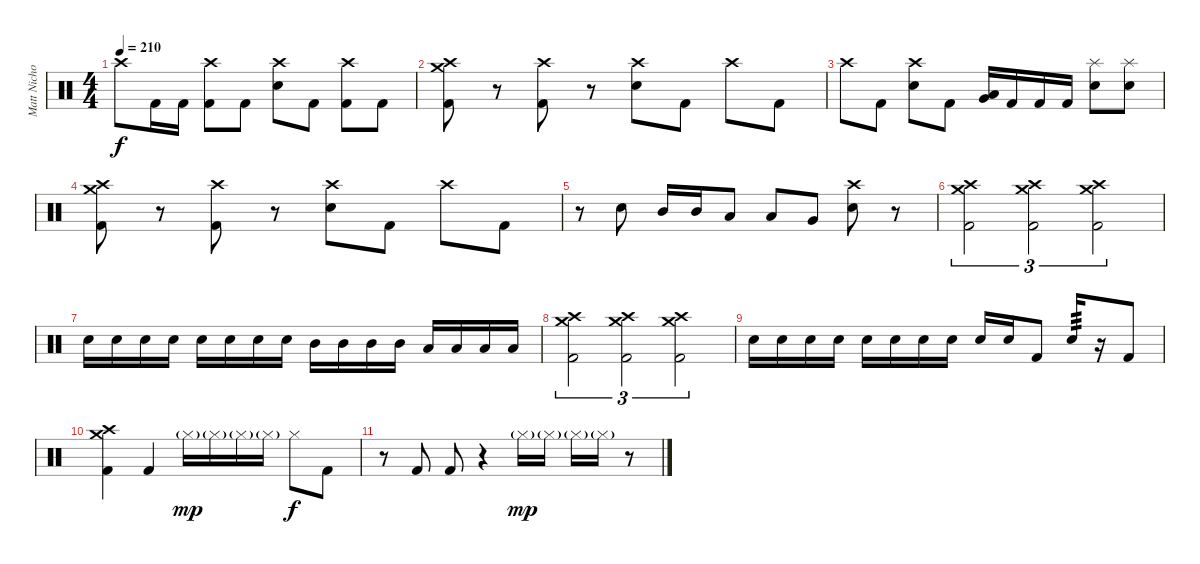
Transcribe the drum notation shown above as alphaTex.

\track ("Matt Nichols" "Matt Nicho") {instrument percussion}
\staff {score}
\articulation defaults
\ts (4 4)
\tempo 210
\clef neutral
\ks c "Crash high (hit)".8{dy f} "Kick (hit) 2".16 "Kick (hit) 2".16
("Crash high (hit)" "Kick (hit) 2").8 "Kick (hit) 2".8 ("Crash high (hit)" "Snare (hit) 2").8 "Kick (hit) 2".8 ("Crash high (hit)" "Kick (hit) 2").8 "Kick (hit) 2".8 |
("Crash high (hit)" "Crash medium (hit)" "Kick (hit) 2").8 r.8 ("Crash high (hit)" "Kick (hit) 2").8 r.8 ("Crash high (hit)" "Snare (hit) 2").8 "Kick (hit) 2".8 "Crash high (hit)".8 "Kick (hit) 2".8 |
"Crash high (hit)".8 "Kick (hit) 2".8 ("Crash high (hit)" "Snare (hit) 2").8 "Kick (hit) 2".8 ("Low Tom (hit)" "Very Low Tom (hit)").16 "Kick (hit) 2".16 "Kick (hit) 2".16 "Kick (hit) 2".16 ("Splash (hit)" "Snare (hit) 2").8 ("Splash (hit)" "Snare (hit) 2").8 |
("Crash high (hit)" "Crash medium (hit)" "Kick (hit) 2").8 r.8 ("Crash high (hit)" "Kick (hit) 2").8 r.8 ("Crash high (hit)" "Snare (hit) 2").8 "Kick (hit) 2".8 "Crash high (hit)".8 "Kick (hit) 2".8 |
r.8 "Snare (hit) 2".8 "Mid Tom (hit)".16 "Mid Tom (hit)".16 "Low Tom (hit)".8 "Low Tom (hit)".8 "Very Low Tom (hit)".8 ("Crash high (hit)" "Snare (hit) 2").8 r.8 |
("Crash high (hit)" "Crash medium (hit)" "Kick (hit) 2").2{tu (3 2)} ("Crash high (hit)" "Crash medium (hit)" "Kick (hit) 2").2{tu (3 2)} ("Crash high (hit)" "Crash medium (hit)" "Kick (hit) 2").2{tu (3 2)} |
"Snare (hit) 2".16 "Snare (hit) 2".16 "Snare (hit) 2".16 "Snare (hit) 2".16 "Snare (hit) 2".16 "Snare (hit) 2".16 "Snare (hit) 2".16 "Snare (hit) 2".16 "Mid Tom (hit)".16 "Mid Tom (hit)".16 "Mid Tom (hit)".16 "Mid Tom (hit)".16 "Low Tom (hit)".16 "Low Tom (hit)".16 "Low Tom (hit)".16 "Low Tom (hit)".16 |
("Crash high (hit)" "Crash medium (hit)" "Kick (hit) 2").2{tu (3 2)} ("Crash high (hit)" "Crash medium (hit)" "Kick (hit) 2").2{tu (3 2)} ("Crash high (hit)" "Crash medium (hit)" "Kick (hit) 2").2{tu (3 2)} |
"Snare (hit) 2".16 "Snare (hit) 2".16 "Snare (hit) 2".16 "Snare (hit) 2".16 "Snare (hit) 2".16 "Snare (hit) 2".16 "Snare (hit) 2".16 "Snare (hit) 2".16 "Snare (hit) 2".16 "Snare (hit) 2".16 "Kick (hit) 2".8 "Snare (hit) 2".16{tp 3} r.16 "Kick (hit) 2".8 |
("Crash high (hit)" "Crash medium (hit)" "Kick (hit) 2").4 "Kick (hit) 2".4 "Hi-Hat (closed)"{g}.16{dy mp} "Hi-Hat (closed)"{g}.16 "Hi-Hat (closed)"{g}.16 "Hi-Hat (closed)"{g}.16 "Hi-Hat (closed)".8{dy f} "Kick (hit) 2".8 |
r.8 "Kick (hit) 2".8 "Kick (hit) 2".8 r.4 "Hi-Hat (closed)"{g}.16{dy mp} "Hi-Hat (closed)"{g}.16 "Hi-Hat (closed)"{g}.16 "Hi-Hat (closed)"{g}.16 r.8
